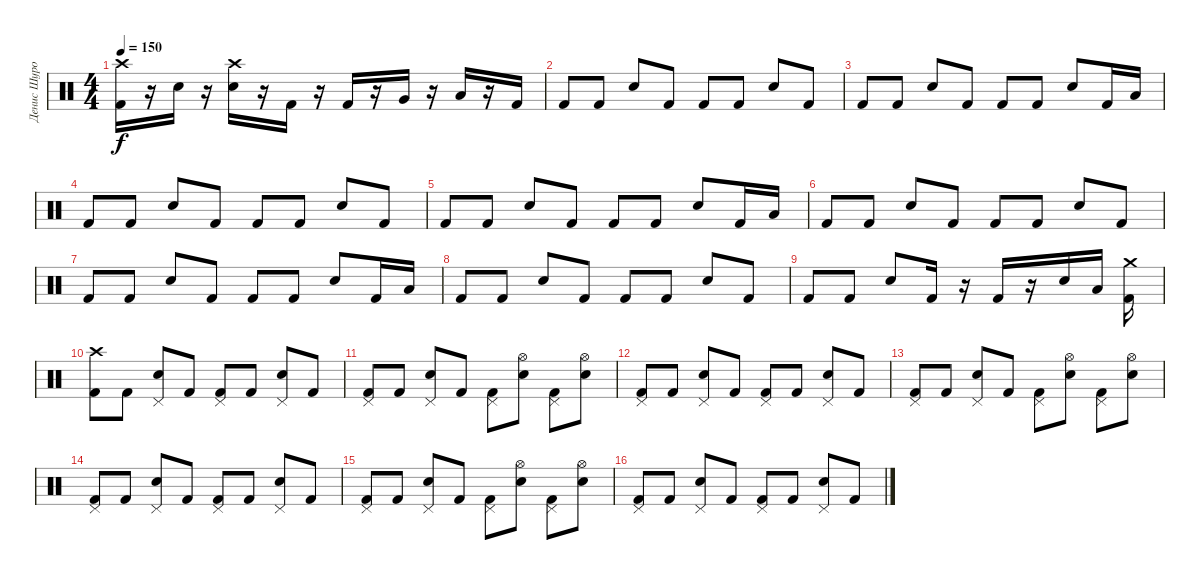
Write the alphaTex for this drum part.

\track ("Денис Шуров" "Денис Шуро") {instrument percussion}
\staff {score}
\articulation defaults
\ts (4 4)
\tempo 150
\clef neutral
\ks c
("Crash high (hit)" "Kick (hit) 2").16{dy f} r.16 "Electric Snare (hit)".16 r.16 ("Crash high (hit)" "Electric Snare (hit)").16 r.16 "Kick (hit) 2".16 r.16 "Kick (hit) 2".16 r.16 "Very Low Tom (hit)".16 r.16 "Low Floor Tom (hit)".16 r.16 "Kick (hit) 2".16 |
"Kick (hit) 2".8 "Kick (hit) 2".8 "Electric Snare (hit)".8 "Kick (hit) 2".8 "Kick (hit) 2".8 "Kick (hit) 2".8 "Electric Snare (hit)".8 "Kick (hit) 2".8 |
"Kick (hit) 2".8 "Kick (hit) 2".8 "Electric Snare (hit)".8 "Kick (hit) 2".8 "Kick (hit) 2".8 "Kick (hit) 2".8 "Electric Snare (hit)".8 "Kick (hit) 2".16 "Low Tom (hit)".16 |
"Kick (hit) 2".8 "Kick (hit) 2".8 "Electric Snare (hit)".8 "Kick (hit) 2".8 "Kick (hit) 2".8 "Kick (hit) 2".8 "Electric Snare (hit)".8 "Kick (hit) 2".8 |
"Kick (hit) 2".8 "Kick (hit) 2".8 "Electric Snare (hit)".8 "Kick (hit) 2".8 "Kick (hit) 2".8 "Kick (hit) 2".8 "Electric Snare (hit)".8 "Kick (hit) 2".16 "Low Tom (hit)".16 |
"Kick (hit) 2".8 "Kick (hit) 2".8 "Electric Snare (hit)".8 "Kick (hit) 2".8 "Kick (hit) 2".8 "Kick (hit) 2".8 "Electric Snare (hit)".8 "Kick (hit) 2".8 |
"Kick (hit) 2".8 "Kick (hit) 2".8 "Electric Snare (hit)".8 "Kick (hit) 2".8 "Kick (hit) 2".8 "Kick (hit) 2".8 "Electric Snare (hit)".8 "Kick (hit) 2".16 "Low Tom (hit)".16 |
"Kick (hit) 2".8 "Kick (hit) 2".8 "Electric Snare (hit)".8 "Kick (hit) 2".8 "Kick (hit) 2".8 "Kick (hit) 2".8 "Electric Snare (hit)".8 "Kick (hit) 2".8 |
"Kick (hit) 2".8 "Kick (hit) 2".8 "Electric Snare (hit)".8 "Kick (hit) 2".16 r.16 "Kick (hit) 2".16 r.16 "Electric Snare (hit)".16 "Low Tom (hit)".16 ("Crash medium (hit)" "Kick (hit) 2").16 |
("Crash high (hit)" "Kick (hit) 2").8 "Kick (hit) 2".8 ("Pedal Hi-Hat (hit)" "Electric Snare (hit)").8 "Kick (hit) 2".8 ("Pedal Hi-Hat (hit)" "Kick (hit) 2").8 "Kick (hit) 2".8 ("Pedal Hi-Hat (hit)" "Electric Snare (hit)").8 "Kick (hit) 2".8 |
("Pedal Hi-Hat (hit)" "Kick (hit) 2").8 "Kick (hit) 2".8 ("Pedal Hi-Hat (hit)" "Electric Snare (hit)").8 "Kick (hit) 2".8 ("Pedal Hi-Hat (hit)" "Kick (hit) 2").8 ("Hi-Hat (open)" "Electric Snare (hit)").8 ("Pedal Hi-Hat (hit)" "Kick (hit) 2").8 ("Hi-Hat (open)" "Electric Snare (hit)").8 |
("Pedal Hi-Hat (hit)" "Kick (hit) 2").8 "Kick (hit) 2".8 ("Pedal Hi-Hat (hit)" "Electric Snare (hit)").8 "Kick (hit) 2".8 ("Pedal Hi-Hat (hit)" "Kick (hit) 2").8 "Kick (hit) 2".8 ("Pedal Hi-Hat (hit)" "Electric Snare (hit)").8 "Kick (hit) 2".8 |
("Pedal Hi-Hat (hit)" "Kick (hit) 2").8 "Kick (hit) 2".8 ("Pedal Hi-Hat (hit)" "Electric Snare (hit)").8 "Kick (hit) 2".8 ("Pedal Hi-Hat (hit)" "Kick (hit) 2").8 ("Hi-Hat (open)" "Electric Snare (hit)").8 ("Pedal Hi-Hat (hit)" "Kick (hit) 2").8 ("Hi-Hat (open)" "Electric Snare (hit)").8 |
("Pedal Hi-Hat (hit)" "Kick (hit) 2").8 "Kick (hit) 2".8 ("Pedal Hi-Hat (hit)" "Electric Snare (hit)").8 "Kick (hit) 2".8 ("Pedal Hi-Hat (hit)" "Kick (hit) 2").8 "Kick (hit) 2".8 ("Pedal Hi-Hat (hit)" "Electric Snare (hit)").8 "Kick (hit) 2".8 |
("Pedal Hi-Hat (hit)" "Kick (hit) 2").8 "Kick (hit) 2".8 ("Pedal Hi-Hat (hit)" "Electric Snare (hit)").8 "Kick (hit) 2".8 ("Pedal Hi-Hat (hit)" "Kick (hit) 2").8 ("Hi-Hat (open)" "Electric Snare (hit)").8 ("Pedal Hi-Hat (hit)" "Kick (hit) 2").8 ("Hi-Hat (open)" "Electric Snare (hit)").8 |
("Pedal Hi-Hat (hit)" "Kick (hit) 2").8 "Kick (hit) 2".8 ("Pedal Hi-Hat (hit)" "Electric Snare (hit)").8 "Kick (hit) 2".8 ("Pedal Hi-Hat (hit)" "Kick (hit) 2").8 "Kick (hit) 2".8 ("Pedal Hi-Hat (hit)" "Electric Snare (hit)").8 "Kick (hit) 2".8
